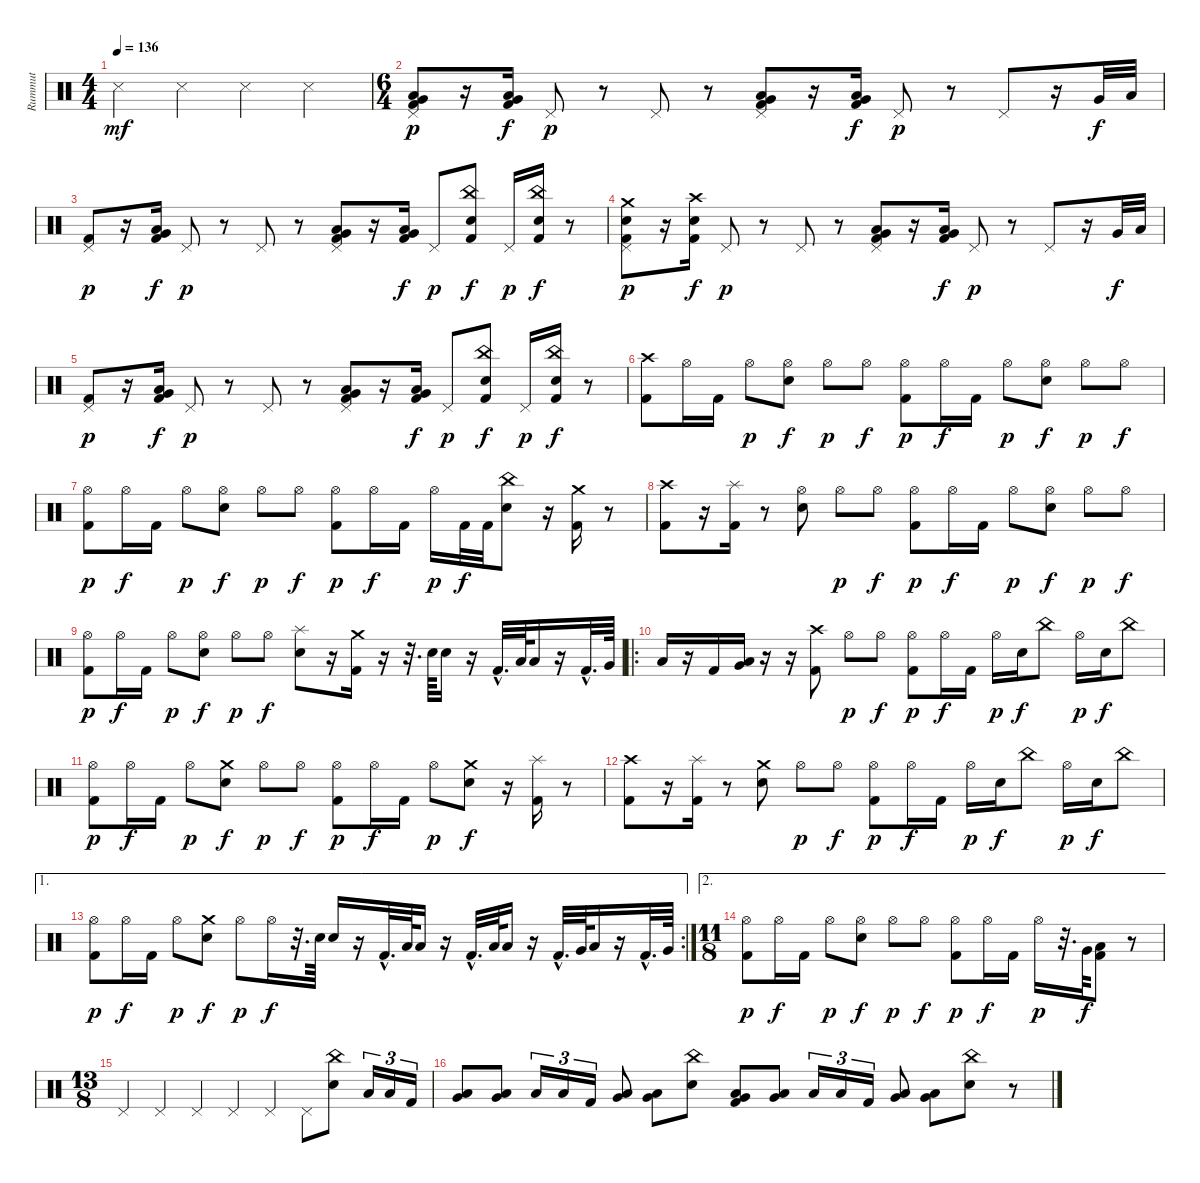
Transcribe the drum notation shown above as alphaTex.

\track ("Rummut" "Rummut") {instrument percussion}
\staff {score}
\articulation defaults
\ts (4 4)
\tempo 136
\clef neutral
\ks c "Snare (side stick) 3".4{dy mf} "Snare (side stick) 3".4 "Snare (side stick) 3".4 "Snare (side stick) 3".4
|
\ts (6 4)
("Pedal Hi-Hat (hit)" "Very Low Tom (hit)" "Low Floor Tom (hit)" "Kick (hit) 2").8{dy p} r.16 ("Very Low Tom (hit)" "Low Floor Tom (hit)" "Kick (hit) 2").16{dy f} "Pedal Hi-Hat (hit)".8{dy p} r.8 "Pedal Hi-Hat (hit)".8 r.8 ("Pedal Hi-Hat (hit)" "Very Low Tom (hit)" "Low Floor Tom (hit)" "Kick (hit) 2").8 r.16 ("Very Low Tom (hit)" "Low Floor Tom (hit)" "Kick (hit) 2").16{dy f} "Pedal Hi-Hat (hit)".8{dy p} r.8 "Pedal Hi-Hat (hit)".8 r.16 "Very Low Tom (hit)".32{dy f} "Low Floor Tom (hit)".32 |
("Pedal Hi-Hat (hit)" "Kick (hit) 2").8{dy p} r.16 ("Very Low Tom (hit)" "Low Floor Tom (hit)" "Kick (hit) 2").16{dy f} "Pedal Hi-Hat (hit)".8{dy p} r.8 "Pedal Hi-Hat (hit)".8 r.8 ("Pedal Hi-Hat (hit)" "Very Low Tom (hit)" "Low Floor Tom (hit)" "Kick (hit) 2").8 r.16 ("Very Low Tom (hit)" "Low Floor Tom (hit)" "Kick (hit) 2").16{dy f} "Pedal Hi-Hat (hit)".8{dy p} ("China (hit)" "Electric Snare (hit)" "Kick (hit) 2").8{dy f} "Pedal Hi-Hat (hit)".16{dy p} ("China (hit)" "Electric Snare (hit)" "Kick (hit) 2").16{dy f} r.8 |
("Crash medium (hit)" "Pedal Hi-Hat (hit)" "Electric Snare (hit)" "Kick (hit) 2").8{dy p} r.16 ("Crash high (hit)" "Electric Snare (hit)" "Kick (hit) 2").16{dy f} "Pedal Hi-Hat (hit)".8{dy p} r.8 "Pedal Hi-Hat (hit)".8 r.8 ("Pedal Hi-Hat (hit)" "Very Low Tom (hit)" "Low Floor Tom (hit)" "Kick (hit) 2").8 r.16 ("Very Low Tom (hit)" "Low Floor Tom (hit)" "Kick (hit) 2").16{dy f} "Pedal Hi-Hat (hit)".8{dy p} r.8 "Pedal Hi-Hat (hit)".8 r.16 "Very Low Tom (hit)".32{dy f} "Low Floor Tom (hit)".32 |
("Pedal Hi-Hat (hit)" "Kick (hit) 2").8{dy p} r.16 ("Very Low Tom (hit)" "Low Floor Tom (hit)" "Kick (hit) 2").16{dy f} "Pedal Hi-Hat (hit)".8{dy p} r.8 "Pedal Hi-Hat (hit)".8 r.8 ("Pedal Hi-Hat (hit)" "Very Low Tom (hit)" "Low Floor Tom (hit)" "Kick (hit) 2").8 r.16 ("Very Low Tom (hit)" "Low Floor Tom (hit)" "Kick (hit) 2").16{dy f} "Pedal Hi-Hat (hit)".8{dy p} ("China (hit)" "Electric Snare (hit)" "Kick (hit) 2").8{dy f} "Pedal Hi-Hat (hit)".16{dy p} ("China (hit)" "Electric Snare (hit)" "Kick (hit) 2").16{dy f} r.8 |
("Crash high (hit)" "Kick (hit) 2").8 "Hi-Hat (open)".16 "Kick (hit) 2".16 "Hi-Hat (open)".8{dy p} ("Hi-Hat (open)" "Electric Snare (hit)").8{dy f} "Hi-Hat (open)".8{dy p} "Hi-Hat (open)".8{dy f} ("Hi-Hat (open)" "Kick (hit) 2").8{dy p} "Hi-Hat (open)".16{dy f} "Kick (hit) 2".16 "Hi-Hat (open)".8{dy p} ("Hi-Hat (open)" "Electric Snare (hit)").8{dy f} "Hi-Hat (open)".8{dy p} "Hi-Hat (open)".8{dy f} |
("Hi-Hat (open)" "Kick (hit) 2").8{dy p} "Hi-Hat (open)".16{dy f} "Kick (hit) 2".16 "Hi-Hat (open)".8{dy p} ("Hi-Hat (open)" "Electric Snare (hit)").8{dy f} "Hi-Hat (open)".8{dy p} "Hi-Hat (open)".8{dy f} ("Hi-Hat (open)" "Kick (hit) 2").8{dy p} "Hi-Hat (open)".16{dy f} "Kick (hit) 2".16 "Hi-Hat (open)".16{dy p} "Kick (hit) 2".32{dy f} "Kick (hit) 2".32 ("China (hit)" "Electric Snare (hit)").8 r.16 ("Crash medium (hit)" "Kick (hit) 2").16 r.8 |
("Crash high (hit)" "Kick (hit) 2").8 r.16 ("Splash (hit)" "Kick (hit) 2").16 r.8 ("Hi-Hat (open)" "Electric Snare (hit)").8 "Hi-Hat (open)".8{dy p} "Hi-Hat (open)".8{dy f} ("Hi-Hat (open)" "Kick (hit) 2").8{dy p} "Hi-Hat (open)".16{dy f} "Kick (hit) 2".16 "Hi-Hat (open)".8{dy p} ("Hi-Hat (open)" "Electric Snare (hit)").8{dy f} "Hi-Hat (open)".8{dy p} "Hi-Hat (open)".8{dy f} |
("Hi-Hat (open)" "Kick (hit) 2").8{dy p} "Hi-Hat (open)".16{dy f} "Kick (hit) 2".16 "Hi-Hat (open)".8{dy p} ("Hi-Hat (open)" "Electric Snare (hit)").8{dy f} "Hi-Hat (open)".8{dy p} "Hi-Hat (open)".8{dy f} ("Splash (hit)" "Electric Snare (hit)").8 r.16 ("Crash medium (hit)" "Kick (hit) 2").16 r.16 r.32{d} "Snare (hit) 2".64 "Electric Snare (hit)".16 r.16 "Kick (hit) 2"{hac}.32{d} "Low Tom (hit)".64 "Low Floor Tom (hit)".16 r.16 "Kick (hit) 2"{hac}.32{d} "Very Low Tom (hit)".64 |
\ro "Low Floor Tom (hit)".16
r.16 "Kick (hit) 2".16 ("Very Low Tom (hit)" "Low Floor Tom (hit)").16 r.16 r.16 ("Crash high (hit)" "Kick (hit) 2").8 "Hi-Hat (open)".8{dy p} "Hi-Hat (open)".8{dy f} ("Hi-Hat (open)" "Kick (hit) 2").8{dy p} "Hi-Hat (open)".16{dy f} "Kick (hit) 2".16 "Hi-Hat (open)".16{dy p} "Electric Snare (hit)".16{dy f} "China (hit)".8 "Hi-Hat (open)".16{dy p} "Electric Snare (hit)".16{dy f} "China (hit)".8 |
("Hi-Hat (open)" "Kick (hit) 2").8{dy p} "Hi-Hat (open)".16{dy f} "Kick (hit) 2".16 "Hi-Hat (open)".8{dy p} ("Crash medium (hit)" "Electric Snare (hit)").8{dy f} "Hi-Hat (open)".8{dy p} "Hi-Hat (open)".8{dy f} ("Hi-Hat (open)" "Kick (hit) 2").8{dy p} "Hi-Hat (open)".16{dy f} "Kick (hit) 2".16 "Hi-Hat (open)".8{dy p} ("Crash medium (hit)" "Electric Snare (hit)").8{dy f} r.16 ("Splash (hit)" "Kick (hit) 2").16 r.8 |
("Crash high (hit)" "Kick (hit) 2").8 r.16 ("Splash (hit)" "Kick (hit) 2").16 r.8 ("Crash medium (hit)" "Electric Snare (hit)").8 "Hi-Hat (open)".8{dy p} "Hi-Hat (open)".8{dy f} ("Hi-Hat (open)" "Kick (hit) 2").8{dy p} "Hi-Hat (open)".16{dy f} "Kick (hit) 2".16 "Hi-Hat (open)".16{dy p} "Electric Snare (hit)".16{dy f} "China (hit)".8 "Hi-Hat (open)".16{dy p} "Electric Snare (hit)".16{dy f} "China (hit)".8 |
\ae 1
\rc 2
("Hi-Hat (open)" "Kick (hit) 2").8{dy p} "Hi-Hat (open)".16{dy f} "Kick (hit) 2".16 "Hi-Hat (open)".8{dy p} ("Crash medium (hit)" "Electric Snare (hit)").8{dy f} "Hi-Hat (open)".8{dy p} "Hi-Hat (open)".16{dy f} r.32{d} "Snare (hit) 2".64 "Electric Snare (hit)".16 r.16 "Kick (hit) 2"{hac}.32{d} "Low Tom (hit)".64 "Low Floor Tom (hit)".16 r.16 "Kick (hit) 2"{hac}.32{d} "Low Tom (hit)".64 "Low Floor Tom (hit)".16 r.16 "Kick (hit) 2"{hac}.32{d} "Very Low Tom (hit)".64 "Low Floor Tom (hit)".16 r.16 "Kick (hit) 2"{hac}.32{d} "Very Low Tom (hit)".64 |
\ae 2
\ts (11 8)
("Hi-Hat (open)" "Kick (hit) 2").8{dy p} "Hi-Hat (open)".16{dy f} "Kick (hit) 2".16 "Hi-Hat (open)".8{dy p} ("Hi-Hat (open)" "Electric Snare (hit)").8{dy f} "Hi-Hat (open)".8{dy p} "Hi-Hat (open)".8{dy f} ("Hi-Hat (open)" "Kick (hit) 2").8{dy p} "Hi-Hat (open)".16{dy f} "Kick (hit) 2".16 "Hi-Hat (open)".16{dy p} r.32{d} "Very Low Tom (hit)".64{dy f} ("Low Floor Tom (hit)" "Kick (hit) 2").8 r.8 |
\ts (13 8)
"Pedal Hi-Hat (hit)".4 "Pedal Hi-Hat (hit)".4 "Pedal Hi-Hat (hit)".4 "Pedal Hi-Hat (hit)".4 "Pedal Hi-Hat (hit)".4 "Pedal Hi-Hat (hit)".8 ("China (hit)" "Electric Snare (hit)").8 "Low Tom (hit)".16{tu (3 2)} "Low Floor Tom (hit)".16{tu (3 2)} "Kick (hit) 2".16{tu (3 2)} |
("Very Low Tom (hit)" "Low Floor Tom (hit)").8 ("Very Low Tom (hit)" "Low Floor Tom (hit)").8 "Low Tom (hit)".16{tu (3 2)} "Low Floor Tom (hit)".16{tu (3 2)} "Kick (hit) 2".16{tu (3 2)} ("Very Low Tom (hit)" "Low Floor Tom (hit)").8 ("Very Low Tom (hit)" "Low Floor Tom (hit)").8 ("China (hit)" "Electric Snare (hit)").8 ("Very Low Tom (hit)" "Low Floor Tom (hit)" "Kick (hit) 2").8 ("Very Low Tom (hit)" "Low Floor Tom (hit)").8 "Low Tom (hit)".16{tu (3 2)} "Low Floor Tom (hit)".16{tu (3 2)} "Kick (hit) 2".16{tu (3 2)} ("Very Low Tom (hit)" "Low Floor Tom (hit)").8 ("Very Low Tom (hit)" "Low Floor Tom (hit)").8 ("China (hit)" "Electric Snare (hit)").8 r.8
